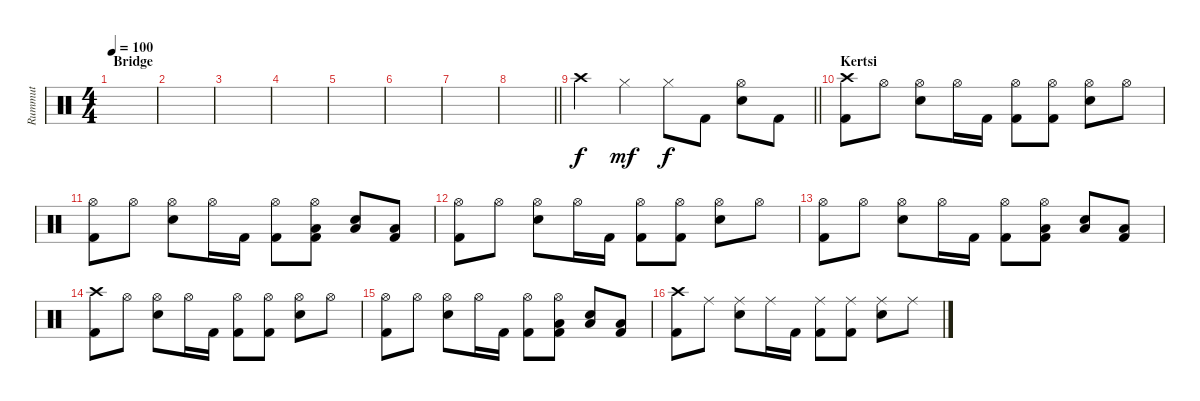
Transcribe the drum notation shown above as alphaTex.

\track ("Rummut" "Rummut") {instrument percussion}
\staff {score}
\articulation defaults
\ts (4 4)
\section ("" "Bridge")
\tempo 100
\clef neutral
\ks c
|
|
|
|
|
|
|
\barLineRight lightlight
|
\barLineRight lightlight "Crash high (hit)".4 "Hi-Hat (closed)".4{dy mf} "Hi-Hat (closed)".8{dy f} "Kick (hit) 2".8
("Hi-Hat (open)" "Snare (hit) 2").8 "Kick (hit) 2".8 |
\section ("" "Kertsi")
("Crash high (hit)" "Kick (hit) 2").8 "Hi-Hat (open)".8 ("Hi-Hat (open)" "Snare (hit) 2").8 "Hi-Hat (open)".16 "Kick (hit) 2".16 ("Hi-Hat (open)" "Kick (hit) 2").8 ("Hi-Hat (open)" "Kick (hit) 2").8 ("Hi-Hat (open)" "Snare (hit) 2").8 "Hi-Hat (open)".8 |
("Hi-Hat (open)" "Kick (hit) 2").8 "Hi-Hat (open)".8 ("Hi-Hat (open)" "Snare (hit) 2").8 "Hi-Hat (open)".16 "Kick (hit) 2".16 ("Hi-Hat (open)" "Kick (hit) 2").8 ("Hi-Hat (open)" "Low Floor Tom (hit)" "Kick (hit) 2").8 ("Snare (hit) 2" "Low Floor Tom (hit)").8 ("Low Floor Tom (hit)" "Kick (hit) 2").8 |
("Hi-Hat (open)" "Kick (hit) 2").8 "Hi-Hat (open)".8 ("Hi-Hat (open)" "Snare (hit) 2").8 "Hi-Hat (open)".16 "Kick (hit) 2".16 ("Hi-Hat (open)" "Kick (hit) 2").8 ("Hi-Hat (open)" "Kick (hit) 2").8 ("Hi-Hat (open)" "Snare (hit) 2").8 "Hi-Hat (open)".8 |
("Hi-Hat (open)" "Kick (hit) 2").8 "Hi-Hat (open)".8 ("Hi-Hat (open)" "Snare (hit) 2").8 "Hi-Hat (open)".16 "Kick (hit) 2".16 ("Hi-Hat (open)" "Kick (hit) 2").8 ("Hi-Hat (open)" "Low Floor Tom (hit)" "Kick (hit) 2").8 ("Snare (hit) 2" "Low Floor Tom (hit)").8 ("Low Floor Tom (hit)" "Kick (hit) 2").8 |
("Crash high (hit)" "Kick (hit) 2").8 "Hi-Hat (open)".8 ("Hi-Hat (open)" "Snare (hit) 2").8 "Hi-Hat (open)".16 "Kick (hit) 2".16 ("Hi-Hat (open)" "Kick (hit) 2").8 ("Hi-Hat (open)" "Kick (hit) 2").8 ("Hi-Hat (open)" "Snare (hit) 2").8 "Hi-Hat (open)".8 |
("Hi-Hat (open)" "Kick (hit) 2").8 "Hi-Hat (open)".8 ("Hi-Hat (open)" "Snare (hit) 2").8 "Hi-Hat (open)".16 "Kick (hit) 2".16 ("Hi-Hat (open)" "Kick (hit) 2").8 ("Hi-Hat (open)" "Low Floor Tom (hit)" "Kick (hit) 2").8 ("Snare (hit) 2" "Low Floor Tom (hit)").8 ("Low Floor Tom (hit)" "Kick (hit) 2").8 |
("Crash high (hit)" "Kick (hit) 2").8 "Ride (middle)".8 ("Ride (middle)" "Snare (hit) 2").8 "Ride (middle)".16 "Kick (hit) 2".16 ("Ride (middle)" "Kick (hit) 2").8 ("Ride (middle)" "Kick (hit) 2").8 ("Ride (middle)" "Snare (hit) 2").8 "Ride (middle)".8
